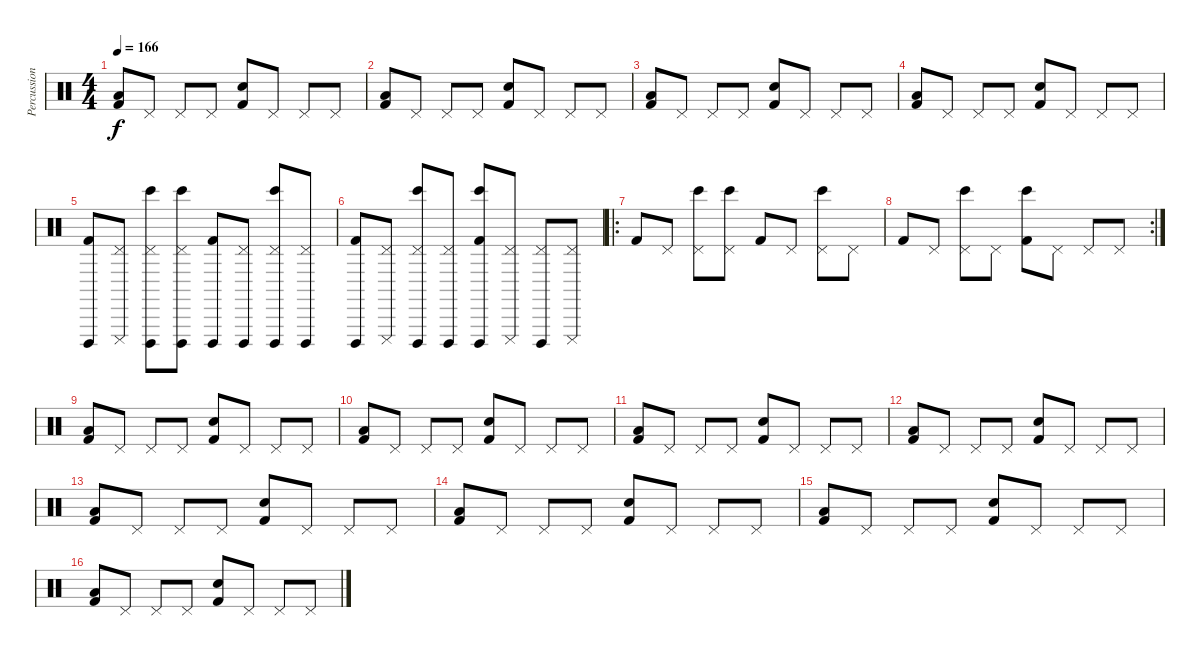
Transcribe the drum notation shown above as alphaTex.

\track ("Percussion" "Percussion") {instrument percussion}
\staff {score}
\articulation defaults
\ts (4 4)
\tempo 166
\clef neutral
\ks c
("Kick (hit) 2" "Low Tom (hit)").8{dy f} "Pedal Hi-Hat (hit)".8 "Pedal Hi-Hat (hit)".8 "Pedal Hi-Hat (hit)".8 ("Kick (hit) 2" "Electric Snare (hit)").8 "Pedal Hi-Hat (hit)".8 "Pedal Hi-Hat (hit)".8 "Pedal Hi-Hat (hit)".8 |
("Kick (hit) 2" "Low Tom (hit)").8 "Pedal Hi-Hat (hit)".8 "Pedal Hi-Hat (hit)".8 "Pedal Hi-Hat (hit)".8 ("Kick (hit) 2" "Electric Snare (hit)").8 "Pedal Hi-Hat (hit)".8 "Pedal Hi-Hat (hit)".8 "Pedal Hi-Hat (hit)".8 |
("Kick (hit) 2" "Low Tom (hit)").8 "Pedal Hi-Hat (hit)".8 "Pedal Hi-Hat (hit)".8 "Pedal Hi-Hat (hit)".8 ("Kick (hit) 2" "Electric Snare (hit)").8 "Pedal Hi-Hat (hit)".8 "Pedal Hi-Hat (hit)".8 "Pedal Hi-Hat (hit)".8 |
("Kick (hit) 2" "Low Tom (hit)").8 "Pedal Hi-Hat (hit)".8 "Pedal Hi-Hat (hit)".8 "Pedal Hi-Hat (hit)".8 ("Kick (hit) 2" "Electric Snare (hit)").8 "Pedal Hi-Hat (hit)".8 "Pedal Hi-Hat (hit)".8 "Pedal Hi-Hat (hit)".8 |
("Kick (hit) 2" "Cuica (open)").8 ("Pedal Hi-Hat (hit)" "Cuica (mute)").8 ("Pedal Hi-Hat (hit)" "Bongo High (hit)" "Cuica (open)").8 ("Pedal Hi-Hat (hit)" "Bongo High (hit)" "Cuica (open)").8 ("Kick (hit) 2" "Cuica (open)").8 ("Pedal Hi-Hat (hit)" "Cuica (open)").8 ("Pedal Hi-Hat (hit)" "Bongo High (hit)" "Cuica (open)").8 ("Pedal Hi-Hat (hit)" "Cuica (open)").8 |
("Kick (hit) 2" "Cuica (open)").8 ("Pedal Hi-Hat (hit)" "Cuica (mute)").8 ("Pedal Hi-Hat (hit)" "Bongo High (hit)" "Cuica (open)").8 ("Pedal Hi-Hat (hit)" "Cuica (open)").8 ("Kick (hit) 2" "Bongo High (hit)" "Cuica (open)").8 ("Pedal Hi-Hat (hit)" "Cuica (mute)").8 ("Pedal Hi-Hat (hit)" "Cuica (open)").8 ("Pedal Hi-Hat (hit)" "Cuica (mute)").8 |
\ro "Kick (hit) 2".8 "Pedal Hi-Hat (hit)".8
("Pedal Hi-Hat (hit)" "Bongo High (hit)").8 ("Pedal Hi-Hat (hit)" "Bongo High (hit)").8 "Kick (hit) 2".8 "Pedal Hi-Hat (hit)".8 ("Pedal Hi-Hat (hit)" "Bongo High (hit)").8 "Pedal Hi-Hat (hit)".8 |
\rc 2 "Kick (hit) 2".8 "Pedal Hi-Hat (hit)".8
("Pedal Hi-Hat (hit)" "Bongo High (hit)").8 "Pedal Hi-Hat (hit)".8 ("Kick (hit) 2" "Bongo High (hit)").8 "Pedal Hi-Hat (hit)".8 "Pedal Hi-Hat (hit)".8 "Pedal Hi-Hat (hit)".8 |
("Kick (hit) 2" "Low Tom (hit)").8 "Pedal Hi-Hat (hit)".8 "Pedal Hi-Hat (hit)".8 "Pedal Hi-Hat (hit)".8 ("Kick (hit) 2" "Electric Snare (hit)").8 "Pedal Hi-Hat (hit)".8 "Pedal Hi-Hat (hit)".8 "Pedal Hi-Hat (hit)".8 |
("Kick (hit) 2" "Low Tom (hit)").8 "Pedal Hi-Hat (hit)".8 "Pedal Hi-Hat (hit)".8 "Pedal Hi-Hat (hit)".8 ("Kick (hit) 2" "Electric Snare (hit)").8 "Pedal Hi-Hat (hit)".8 "Pedal Hi-Hat (hit)".8 "Pedal Hi-Hat (hit)".8 |
("Kick (hit) 2" "Low Tom (hit)").8 "Pedal Hi-Hat (hit)".8 "Pedal Hi-Hat (hit)".8 "Pedal Hi-Hat (hit)".8 ("Kick (hit) 2" "Electric Snare (hit)").8 "Pedal Hi-Hat (hit)".8 "Pedal Hi-Hat (hit)".8 "Pedal Hi-Hat (hit)".8 |
("Kick (hit) 2" "Low Tom (hit)").8 "Pedal Hi-Hat (hit)".8 "Pedal Hi-Hat (hit)".8 "Pedal Hi-Hat (hit)".8 ("Kick (hit) 2" "Electric Snare (hit)").8 "Pedal Hi-Hat (hit)".8 "Pedal Hi-Hat (hit)".8 "Pedal Hi-Hat (hit)".8 |
("Kick (hit) 2" "Low Tom (hit)").8 "Pedal Hi-Hat (hit)".8 "Pedal Hi-Hat (hit)".8 "Pedal Hi-Hat (hit)".8 ("Kick (hit) 2" "Electric Snare (hit)").8 "Pedal Hi-Hat (hit)".8 "Pedal Hi-Hat (hit)".8 "Pedal Hi-Hat (hit)".8 |
("Kick (hit) 2" "Low Tom (hit)").8 "Pedal Hi-Hat (hit)".8 "Pedal Hi-Hat (hit)".8 "Pedal Hi-Hat (hit)".8 ("Kick (hit) 2" "Electric Snare (hit)").8 "Pedal Hi-Hat (hit)".8 "Pedal Hi-Hat (hit)".8 "Pedal Hi-Hat (hit)".8 |
("Kick (hit) 2" "Low Tom (hit)").8 "Pedal Hi-Hat (hit)".8 "Pedal Hi-Hat (hit)".8 "Pedal Hi-Hat (hit)".8 ("Kick (hit) 2" "Electric Snare (hit)").8 "Pedal Hi-Hat (hit)".8 "Pedal Hi-Hat (hit)".8 "Pedal Hi-Hat (hit)".8 |
("Kick (hit) 2" "Low Tom (hit)").8 "Pedal Hi-Hat (hit)".8 "Pedal Hi-Hat (hit)".8 "Pedal Hi-Hat (hit)".8 ("Kick (hit) 2" "Electric Snare (hit)").8 "Pedal Hi-Hat (hit)".8 "Pedal Hi-Hat (hit)".8 "Pedal Hi-Hat (hit)".8
